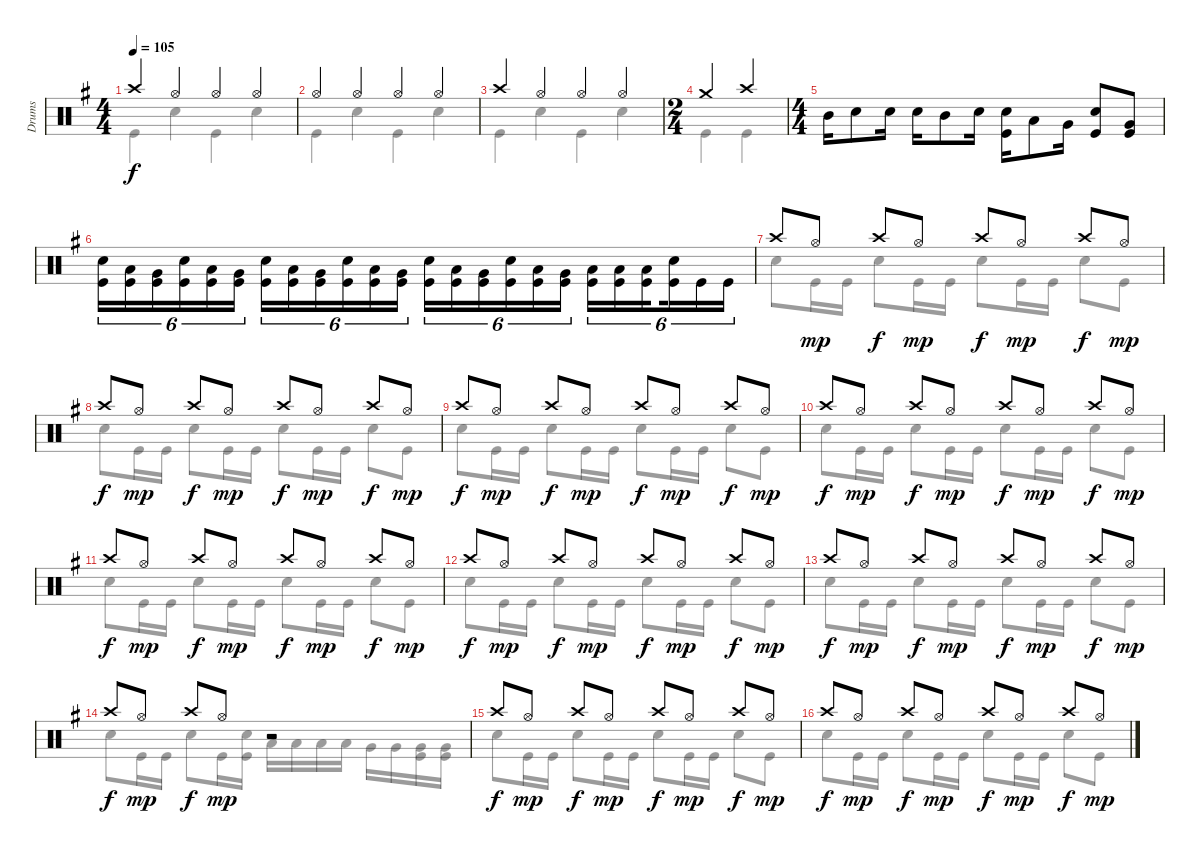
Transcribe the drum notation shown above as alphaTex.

\track ("Drums" "Drums") {instrument percussion}
\staff {score}
\articulation defaults
\voice
\ts (4 4)
\tempo 105
\clef neutral
\ks eminor "Crash high (hit)".4{dy f} "Hi-Hat (open)".4 "Hi-Hat (open)".4 "Hi-Hat (open)".4
|
"Hi-Hat (open)".4 "Hi-Hat (open)".4 "Hi-Hat (open)".4 "Hi-Hat (open)".4 |
"Crash high (hit)".4 "Hi-Hat (open)".4 "Hi-Hat (open)".4 "Hi-Hat (open)".4 |
\ts (2 4)
"Crash medium (hit)".4 "Crash high (hit)".4 |
\ts (4 4)
"Mid Tom (hit)".16 "Snare (hit) 2".8 "Snare (hit) 2".16 "Snare (hit) 2".16 "Mid Tom (hit)".8 "Snare (hit) 2".16 ("Snare (hit) 2" "Kick (hit)").16{beam Down} "Low Tom (hit)".8{beam Down} "Very Low Tom (hit)".16{beam Down} ("Snare (hit) 2" "Kick (hit)").8 ("Very Low Tom (hit)" "Kick (hit)").8 |
("Snare (hit) 2" "Kick (hit)").16{tu (6 4) beam Down} ("Low Tom (hit)" "Kick (hit)").16{tu (6 4) beam Down} ("Very Low Tom (hit)" "Kick (hit)").16{tu (6 4) beam Down} ("Snare (hit) 2" "Kick (hit)").16{tu (6 4) beam Down} ("Low Tom (hit)" "Kick (hit)").16{tu (6 4) beam Down} ("Very Low Tom (hit)" "Kick (hit)").16{tu (6 4) beam Down} ("Snare (hit) 2" "Kick (hit)").16{tu (6 4) beam Down} ("Low Tom (hit)" "Kick (hit)").16{tu (6 4) beam Down} ("Very Low Tom (hit)" "Kick (hit)").16{tu (6 4) beam Down} ("Snare (hit) 2" "Kick (hit)").16{tu (6 4) beam Down} ("Low Tom (hit)" "Kick (hit)").16{tu (6 4) beam Down} ("Very Low Tom (hit)" "Kick (hit)").16{tu (6 4) beam Down} ("Snare (hit) 2" "Kick (hit)").16{tu (6 4) beam Down} ("Low Tom (hit)" "Kick (hit)").16{tu (6 4) beam Down} ("Very Low Tom (hit)" "Kick (hit)").16{tu (6 4) beam Down} ("Snare (hit) 2" "Kick (hit)").16{tu (6 4) beam Down} ("Low Tom (hit)" "Kick (hit)").16{tu (6 4) beam Down} ("Very Low Tom (hit)" "Kick (hit)").16{tu (6 4) beam Down} ("Low Tom (hit)" "Kick (hit)").16{tu (6 4) beam Down} ("Low Tom (hit)" "Kick (hit)").16{tu (6 4) beam Down} ("Low Tom (hit)" "Kick (hit)").16{tu (6 4) beam Down beam splitsecondary} ("Snare (hit) 2" "Kick (hit)").16{tu (6 4) beam Down} "Kick (hit)".16{tu (6 4) beam Down} "Kick (hit)".16{tu (6 4) beam Down} |
"Crash high (hit)".8 "Hi-Hat (open)".8{dy mp} "Crash high (hit)".8{dy f} "Hi-Hat (open)".8{dy mp} "Crash high (hit)".8{dy f} "Hi-Hat (open)".8{dy mp} "Crash high (hit)".8{dy f} "Hi-Hat (open)".8{dy mp} |
"Crash high (hit)".8{dy f} "Hi-Hat (open)".8{dy mp} "Crash high (hit)".8{dy f} "Hi-Hat (open)".8{dy mp} "Crash high (hit)".8{dy f} "Hi-Hat (open)".8{dy mp} "Crash high (hit)".8{dy f} "Hi-Hat (open)".8{dy mp} |
"Crash high (hit)".8{dy f} "Hi-Hat (open)".8{dy mp} "Crash high (hit)".8{dy f} "Hi-Hat (open)".8{dy mp} "Crash high (hit)".8{dy f} "Hi-Hat (open)".8{dy mp} "Crash high (hit)".8{dy f} "Hi-Hat (open)".8{dy mp} |
"Crash high (hit)".8{dy f} "Hi-Hat (open)".8{dy mp} "Crash high (hit)".8{dy f} "Hi-Hat (open)".8{dy mp} "Crash high (hit)".8{dy f} "Hi-Hat (open)".8{dy mp} "Crash high (hit)".8{dy f} "Hi-Hat (open)".8{dy mp} |
"Crash high (hit)".8{dy f} "Hi-Hat (open)".8{dy mp} "Crash high (hit)".8{dy f} "Hi-Hat (open)".8{dy mp} "Crash high (hit)".8{dy f} "Hi-Hat (open)".8{dy mp} "Crash high (hit)".8{dy f} "Hi-Hat (open)".8{dy mp} |
"Crash high (hit)".8{dy f} "Hi-Hat (open)".8{dy mp} "Crash high (hit)".8{dy f} "Hi-Hat (open)".8{dy mp} "Crash high (hit)".8{dy f} "Hi-Hat (open)".8{dy mp} "Crash high (hit)".8{dy f} "Hi-Hat (open)".8{dy mp} |
"Crash high (hit)".8{dy f} "Hi-Hat (open)".8{dy mp} "Crash high (hit)".8{dy f} "Hi-Hat (open)".8{dy mp} "Crash high (hit)".8{dy f} "Hi-Hat (open)".8{dy mp} "Crash high (hit)".8{dy f} "Hi-Hat (open)".8{dy mp} |
"Crash high (hit)".8{dy f} "Hi-Hat (open)".8{dy mp} "Crash high (hit)".8{dy f} "Hi-Hat (open)".8{dy mp} r.2 |
"Crash high (hit)".8{dy f} "Hi-Hat (open)".8{dy mp} "Crash high (hit)".8{dy f} "Hi-Hat (open)".8{dy mp} "Crash high (hit)".8{dy f} "Hi-Hat (open)".8{dy mp} "Crash high (hit)".8{dy f} "Hi-Hat (open)".8{dy mp} |
"Crash high (hit)".8{dy f} "Hi-Hat (open)".8{dy mp} "Crash high (hit)".8{dy f} "Hi-Hat (open)".8{dy mp} "Crash high (hit)".8{dy f} "Hi-Hat (open)".8{dy mp} "Crash high (hit)".8{dy f} "Hi-Hat (open)".8{dy mp}
\voice
\clef neutral
\ottava regular
\simile none
\ks eminor "Kick (hit)".4{dy f} "Snare (hit) 2".4 "Kick (hit)".4 "Snare (hit) 2".4
|
"Kick (hit)".4 "Snare (hit) 2".4 "Kick (hit)".4 "Snare (hit) 2".4 |
"Kick (hit)".4 "Snare (hit) 2".4 "Kick (hit)".4 "Snare (hit) 2".4 |
"Kick (hit)".4 "Kick (hit)".4 |
|
|
"Snare (hit) 2".8 "Kick (hit)".16 "Kick (hit)".16 "Snare (hit) 2".8 "Kick (hit)".16 "Kick (hit)".16 "Snare (hit) 2".8 "Kick (hit)".16 "Kick (hit)".16 "Snare (hit) 2".8 "Kick (hit)".8 |
"Snare (hit) 2".8 "Kick (hit)".16 "Kick (hit)".16 "Snare (hit) 2".8 "Kick (hit)".16 "Kick (hit)".16 "Snare (hit) 2".8 "Kick (hit)".16 "Kick (hit)".16 "Snare (hit) 2".8 "Kick (hit)".8 |
"Snare (hit) 2".8 "Kick (hit)".16 "Kick (hit)".16 "Snare (hit) 2".8 "Kick (hit)".16 "Kick (hit)".16 "Snare (hit) 2".8 "Kick (hit)".16 "Kick (hit)".16 "Snare (hit) 2".8 "Kick (hit)".8 |
"Snare (hit) 2".8 "Kick (hit)".16 "Kick (hit)".16 "Snare (hit) 2".8 "Kick (hit)".16 "Kick (hit)".16 "Snare (hit) 2".8 "Kick (hit)".16 "Kick (hit)".16 "Snare (hit) 2".8 "Kick (hit)".8 |
"Snare (hit) 2".8 "Kick (hit)".16 "Kick (hit)".16 "Snare (hit) 2".8 "Kick (hit)".16 "Kick (hit)".16 "Snare (hit) 2".8 "Kick (hit)".16 "Kick (hit)".16 "Snare (hit) 2".8 "Kick (hit)".8 |
"Snare (hit) 2".8 "Kick (hit)".16 "Kick (hit)".16 "Snare (hit) 2".8 "Kick (hit)".16 "Kick (hit)".16 "Snare (hit) 2".8 "Kick (hit)".16 "Kick (hit)".16 "Snare (hit) 2".8 "Kick (hit)".8 |
"Snare (hit) 2".8 "Kick (hit)".16 "Kick (hit)".16 "Snare (hit) 2".8 "Kick (hit)".16 "Kick (hit)".16 "Snare (hit) 2".8 "Kick (hit)".16 "Kick (hit)".16 "Snare (hit) 2".8 "Kick (hit)".8 |
"Snare (hit) 2".8 "Kick (hit)".16 "Kick (hit)".16 "Snare (hit) 2".8 "Kick (hit)".16 ("Snare (hit) 2" "Kick (hit)").16 "Low Tom (hit)".16 "Low Tom (hit)".16 "Low Tom (hit)".16 "Low Tom (hit)".16 "Very Low Tom (hit)".16 "Very Low Tom (hit)".16 ("Very Low Tom (hit)" "Kick (hit)").16 ("Very Low Tom (hit)" "Kick (hit)").16 |
"Snare (hit) 2".8 "Kick (hit)".16 "Kick (hit)".16 "Snare (hit) 2".8 "Kick (hit)".16 "Kick (hit)".16 "Snare (hit) 2".8 "Kick (hit)".16 "Kick (hit)".16 "Snare (hit) 2".8 "Kick (hit)".8 |
"Snare (hit) 2".8 "Kick (hit)".16 "Kick (hit)".16 "Snare (hit) 2".8 "Kick (hit)".16 "Kick (hit)".16 "Snare (hit) 2".8 "Kick (hit)".16 "Kick (hit)".16 "Snare (hit) 2".8 "Kick (hit)".8
